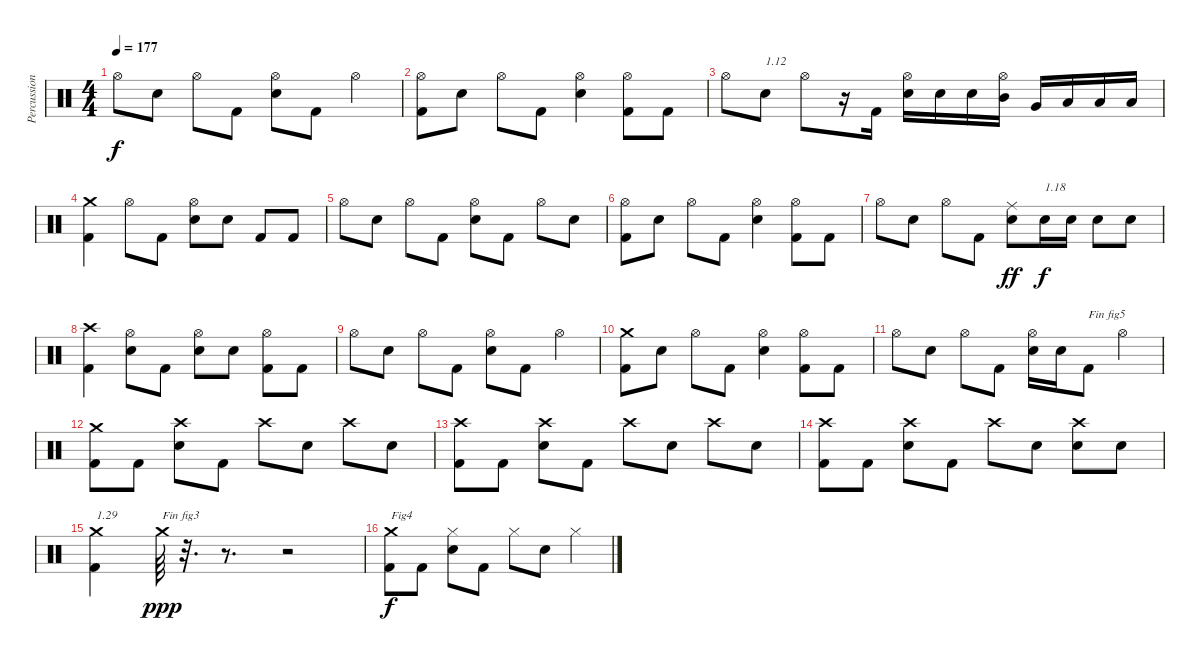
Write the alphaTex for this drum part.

\track ("Percussions" "Percussion") {instrument percussion}
\staff {score}
\articulation defaults
\ts (4 4)
\tempo 177
\clef neutral
\ks c "Hi-Hat (open)".8{dy f} "Electric Snare (hit)".8 "Hi-Hat (open)".8 "Kick (hit) 2".8
("Electric Snare (hit)" "Hi-Hat (open)").8 "Kick (hit) 2".8 "Hi-Hat (open)".4 |
("Kick (hit) 2" "Hi-Hat (open)").8 "Electric Snare (hit)".8 "Hi-Hat (open)".8 "Kick (hit) 2".8 ("Electric Snare (hit)" "Hi-Hat (open)").4 ("Kick (hit) 2" "Hi-Hat (open)").8 "Kick (hit) 2".8 |
"Hi-Hat (open)".8 "Electric Snare (hit)".8{txt "1.12"} "Hi-Hat (open)".8 r.16 "Kick (hit) 2".16 ("Electric Snare (hit)" "Hi-Hat (open)").16 "Electric Snare (hit)".16 "Electric Snare (hit)".16 ("Mid Tom (hit)" "Hi-Hat (open)").16 "Very Low Tom (hit)".16 "Low Tom (hit)".16 "Low Floor Tom (hit)".16 "Low Floor Tom (hit)".16 |
("Kick (hit) 2" "Crash medium (hit)").4 "Hi-Hat (open)".8 "Kick (hit) 2".8 ("Electric Snare (hit)" "Hi-Hat (open)").8 "Electric Snare (hit)".8 "Kick (hit) 2".8 "Kick (hit) 2".8 |
"Hi-Hat (open)".8 "Electric Snare (hit)".8 "Hi-Hat (open)".8 "Kick (hit) 2".8 ("Electric Snare (hit)" "Hi-Hat (open)").8 "Kick (hit) 2".8 "Hi-Hat (open)".8 "Electric Snare (hit)".8 |
("Kick (hit) 2" "Hi-Hat (open)").8 "Electric Snare (hit)".8 "Hi-Hat (open)".8 "Kick (hit) 2".8 ("Electric Snare (hit)" "Hi-Hat (open)").4 ("Kick (hit) 2" "Hi-Hat (open)").8 "Kick (hit) 2".8 |
"Hi-Hat (open)".8 "Electric Snare (hit)".8 "Hi-Hat (open)".8 "Kick (hit) 2".8 ("Electric Snare (hit)" "Ride (middle)").8{dy ff} "Electric Snare (hit)".16{txt "1.18" dy f} "Electric Snare (hit)".16 "Electric Snare (hit)".8 "Electric Snare (hit)".8 |
("Kick (hit) 2" "Crash high (hit)").4 ("Electric Snare (hit)" "Hi-Hat (open)").8 "Kick (hit) 2".8 ("Electric Snare (hit)" "Hi-Hat (open)").8 "Electric Snare (hit)".8 ("Kick (hit) 2" "Hi-Hat (open)").8 "Kick (hit) 2".8 |
"Hi-Hat (open)".8 "Electric Snare (hit)".8 "Hi-Hat (open)".8 "Kick (hit) 2".8 ("Electric Snare (hit)" "Hi-Hat (open)").8 "Kick (hit) 2".8 "Hi-Hat (open)".4 |
("Kick (hit) 2" "Crash medium (hit)").8 "Electric Snare (hit)".8 "Hi-Hat (open)".8 "Kick (hit) 2".8 ("Electric Snare (hit)" "Hi-Hat (open)").4 ("Kick (hit) 2" "Hi-Hat (open)").8 "Kick (hit) 2".8 |
"Hi-Hat (open)".8 "Electric Snare (hit)".8 "Hi-Hat (open)".8 "Kick (hit) 2".8 ("Electric Snare (hit)" "Hi-Hat (open)").16 "Electric Snare (hit)".16 "Kick (hit) 2".8{txt "Fin fig5"} "Hi-Hat (open)".4 |
("Kick (hit) 2" "Crash medium (hit)").8 "Kick (hit) 2".8 ("Electric Snare (hit)" "Crash high (hit)").8 "Kick (hit) 2".8 "Crash high (hit)".8 "Electric Snare (hit)".8 "Crash high (hit)".8 "Electric Snare (hit)".8 |
("Kick (hit) 2" "Crash high (hit)").8 "Kick (hit) 2".8 ("Electric Snare (hit)" "Crash high (hit)").8 "Kick (hit) 2".8 "Crash high (hit)".8 "Electric Snare (hit)".8 "Crash high (hit)".8 "Electric Snare (hit)".8 |
("Kick (hit) 2" "Crash high (hit)").8 "Kick (hit) 2".8 ("Electric Snare (hit)" "Crash high (hit)").8 "Kick (hit) 2".8 "Crash high (hit)".8 "Electric Snare (hit)".8 ("Electric Snare (hit)" "Crash high (hit)").8 "Electric Snare (hit)".8 |
("Kick (hit) 2" "Crash medium (hit)").4{txt "1.29"} "Crash medium (hit)".64{txt "Fin fig3" dy ppp} r.32{d} r.8{d} r.2 |
("Kick (hit) 2" "Crash medium (hit)").8{txt "Fig4" dy f} "Kick (hit) 2".8 ("Electric Snare (hit)" "Hi-Hat (closed)").8 "Kick (hit) 2".8 "Hi-Hat (closed)".8 "Electric Snare (hit)".8 "Hi-Hat (closed)".4
